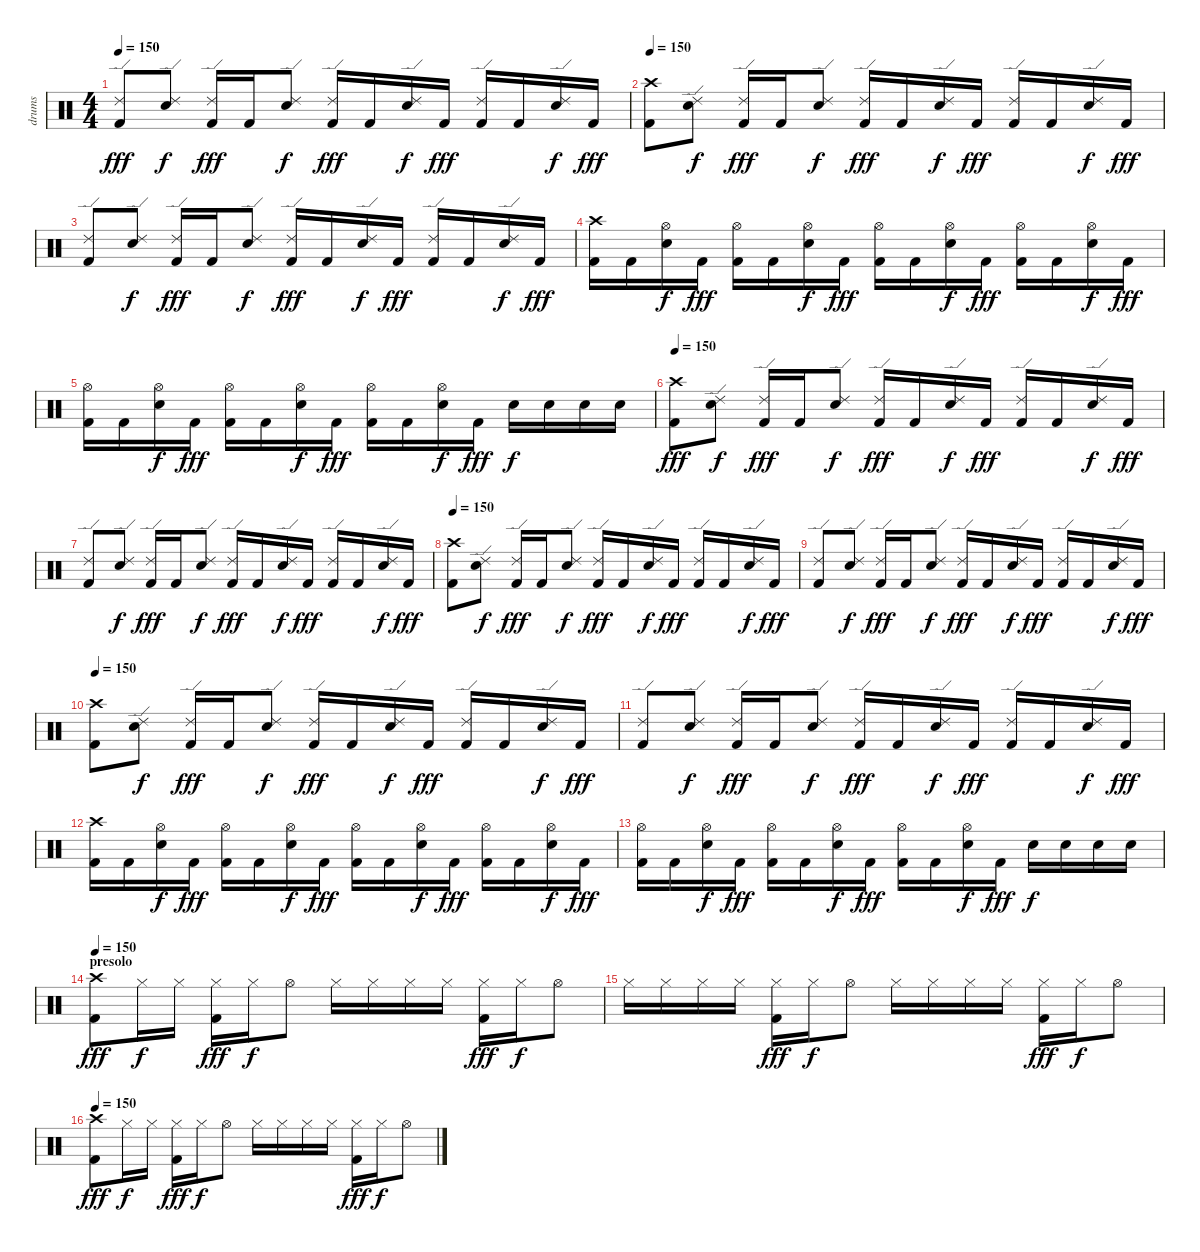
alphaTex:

\track ("drums" "drums") {instrument percussion}
\staff {score}
\articulation defaults
\ts (4 4)
\tempo 150
\clef neutral
\ks c
("Ride (edge) 2" "Kick (hit) 2").8{dy fff} ("Ride (edge) 2" "Snare (hit) 2").8{dy f} ("Ride (edge) 2" "Kick (hit) 2").16{dy fff} "Kick (hit) 2".16 ("Ride (edge) 2" "Snare (hit) 2").8{dy f} ("Ride (edge) 2" "Kick (hit) 2").16{dy fff} "Kick (hit) 2".16 ("Ride (edge) 2" "Snare (hit) 2").16{dy f} "Kick (hit) 2".16{dy fff} ("Ride (edge) 2" "Kick (hit) 2").16 "Kick (hit) 2".16 ("Ride (edge) 2" "Snare (hit) 2").16{dy f} "Kick (hit) 2".16{dy fff} |
\tempo 150
("Crash high (hit)" "Kick (hit) 2").8 ("Ride (edge) 2" "Snare (hit) 2").8{dy f} ("Ride (edge) 2" "Kick (hit) 2").16{dy fff} "Kick (hit) 2".16 ("Ride (edge) 2" "Snare (hit) 2").8{dy f} ("Ride (edge) 2" "Kick (hit) 2").16{dy fff} "Kick (hit) 2".16 ("Ride (edge) 2" "Snare (hit) 2").16{dy f} "Kick (hit) 2".16{dy fff} ("Ride (edge) 2" "Kick (hit) 2").16 "Kick (hit) 2".16 ("Ride (edge) 2" "Snare (hit) 2").16{dy f} "Kick (hit) 2".16{dy fff} |
("Ride (edge) 2" "Kick (hit) 2").8 ("Ride (edge) 2" "Snare (hit) 2").8{dy f} ("Ride (edge) 2" "Kick (hit) 2").16{dy fff} "Kick (hit) 2".16 ("Ride (edge) 2" "Snare (hit) 2").8{dy f} ("Ride (edge) 2" "Kick (hit) 2").16{dy fff} "Kick (hit) 2".16 ("Ride (edge) 2" "Snare (hit) 2").16{dy f} "Kick (hit) 2".16{dy fff} ("Ride (edge) 2" "Kick (hit) 2").16 "Kick (hit) 2".16 ("Ride (edge) 2" "Snare (hit) 2").16{dy f} "Kick (hit) 2".16{dy fff} |
("Crash high (hit)" "Kick (hit) 2").16 "Kick (hit) 2".16 ("Hi-Hat (open)" "Snare (hit) 2").16{dy f} "Kick (hit) 2".16{dy fff} ("Hi-Hat (open)" "Kick (hit) 2").16 "Kick (hit) 2".16 ("Hi-Hat (open)" "Snare (hit) 2").16{dy f} "Kick (hit) 2".16{dy fff} ("Hi-Hat (open)" "Kick (hit) 2").16 "Kick (hit) 2".16 ("Hi-Hat (open)" "Snare (hit) 2").16{dy f} "Kick (hit) 2".16{dy fff} ("Hi-Hat (open)" "Kick (hit) 2").16 "Kick (hit) 2".16 ("Hi-Hat (open)" "Snare (hit) 2").16{dy f} "Kick (hit) 2".16{dy fff} |
("Hi-Hat (open)" "Kick (hit) 2").16 "Kick (hit) 2".16 ("Hi-Hat (open)" "Snare (hit) 2").16{dy f} "Kick (hit) 2".16{dy fff} ("Hi-Hat (open)" "Kick (hit) 2").16 "Kick (hit) 2".16 ("Hi-Hat (open)" "Snare (hit) 2").16{dy f} "Kick (hit) 2".16{dy fff} ("Hi-Hat (open)" "Kick (hit) 2").16 "Kick (hit) 2".16 ("Hi-Hat (open)" "Snare (hit) 2").16{dy f} "Kick (hit) 2".16{dy fff} "Snare (hit) 2".16{dy f} "Snare (hit) 2".16 "Snare (hit) 2".16 "Snare (hit) 2".16 |
\tempo 150
("Crash high (hit)" "Kick (hit) 2").8{dy fff} ("Ride (edge) 2" "Snare (hit) 2").8{dy f} ("Ride (edge) 2" "Kick (hit) 2").16{dy fff} "Kick (hit) 2".16 ("Ride (edge) 2" "Snare (hit) 2").8{dy f} ("Ride (edge) 2" "Kick (hit) 2").16{dy fff} "Kick (hit) 2".16 ("Ride (edge) 2" "Snare (hit) 2").16{dy f} "Kick (hit) 2".16{dy fff} ("Ride (edge) 2" "Kick (hit) 2").16 "Kick (hit) 2".16 ("Ride (edge) 2" "Snare (hit) 2").16{dy f} "Kick (hit) 2".16{dy fff} |
("Ride (edge) 2" "Kick (hit) 2").8 ("Ride (edge) 2" "Snare (hit) 2").8{dy f} ("Ride (edge) 2" "Kick (hit) 2").16{dy fff} "Kick (hit) 2".16 ("Ride (edge) 2" "Snare (hit) 2").8{dy f} ("Ride (edge) 2" "Kick (hit) 2").16{dy fff} "Kick (hit) 2".16 ("Ride (edge) 2" "Snare (hit) 2").16{dy f} "Kick (hit) 2".16{dy fff} ("Ride (edge) 2" "Kick (hit) 2").16 "Kick (hit) 2".16 ("Ride (edge) 2" "Snare (hit) 2").16{dy f} "Kick (hit) 2".16{dy fff} |
\tempo 150
("Crash high (hit)" "Kick (hit) 2").8 ("Ride (edge) 2" "Snare (hit) 2").8{dy f} ("Ride (edge) 2" "Kick (hit) 2").16{dy fff} "Kick (hit) 2".16 ("Ride (edge) 2" "Snare (hit) 2").8{dy f} ("Ride (edge) 2" "Kick (hit) 2").16{dy fff} "Kick (hit) 2".16 ("Ride (edge) 2" "Snare (hit) 2").16{dy f} "Kick (hit) 2".16{dy fff} ("Ride (edge) 2" "Kick (hit) 2").16 "Kick (hit) 2".16 ("Ride (edge) 2" "Snare (hit) 2").16{dy f} "Kick (hit) 2".16{dy fff} |
("Ride (edge) 2" "Kick (hit) 2").8 ("Ride (edge) 2" "Snare (hit) 2").8{dy f} ("Ride (edge) 2" "Kick (hit) 2").16{dy fff} "Kick (hit) 2".16 ("Ride (edge) 2" "Snare (hit) 2").8{dy f} ("Ride (edge) 2" "Kick (hit) 2").16{dy fff} "Kick (hit) 2".16 ("Ride (edge) 2" "Snare (hit) 2").16{dy f} "Kick (hit) 2".16{dy fff} ("Ride (edge) 2" "Kick (hit) 2").16 "Kick (hit) 2".16 ("Ride (edge) 2" "Snare (hit) 2").16{dy f} "Kick (hit) 2".16{dy fff} |
\tempo 150
("Crash high (hit)" "Kick (hit) 2").8 ("Ride (edge) 2" "Snare (hit) 2").8{dy f} ("Ride (edge) 2" "Kick (hit) 2").16{dy fff} "Kick (hit) 2".16 ("Ride (edge) 2" "Snare (hit) 2").8{dy f} ("Ride (edge) 2" "Kick (hit) 2").16{dy fff} "Kick (hit) 2".16 ("Ride (edge) 2" "Snare (hit) 2").16{dy f} "Kick (hit) 2".16{dy fff} ("Ride (edge) 2" "Kick (hit) 2").16 "Kick (hit) 2".16 ("Ride (edge) 2" "Snare (hit) 2").16{dy f} "Kick (hit) 2".16{dy fff} |
("Ride (edge) 2" "Kick (hit) 2").8 ("Ride (edge) 2" "Snare (hit) 2").8{dy f} ("Ride (edge) 2" "Kick (hit) 2").16{dy fff} "Kick (hit) 2".16 ("Ride (edge) 2" "Snare (hit) 2").8{dy f} ("Ride (edge) 2" "Kick (hit) 2").16{dy fff} "Kick (hit) 2".16 ("Ride (edge) 2" "Snare (hit) 2").16{dy f} "Kick (hit) 2".16{dy fff} ("Ride (edge) 2" "Kick (hit) 2").16 "Kick (hit) 2".16 ("Ride (edge) 2" "Snare (hit) 2").16{dy f} "Kick (hit) 2".16{dy fff} |
("Crash high (hit)" "Kick (hit) 2").16 "Kick (hit) 2".16 ("Hi-Hat (open)" "Snare (hit) 2").16{dy f} "Kick (hit) 2".16{dy fff} ("Hi-Hat (open)" "Kick (hit) 2").16 "Kick (hit) 2".16 ("Hi-Hat (open)" "Snare (hit) 2").16{dy f} "Kick (hit) 2".16{dy fff} ("Hi-Hat (open)" "Kick (hit) 2").16 "Kick (hit) 2".16 ("Hi-Hat (open)" "Snare (hit) 2").16{dy f} "Kick (hit) 2".16{dy fff} ("Hi-Hat (open)" "Kick (hit) 2").16 "Kick (hit) 2".16 ("Hi-Hat (open)" "Snare (hit) 2").16{dy f} "Kick (hit) 2".16{dy fff} |
("Hi-Hat (open)" "Kick (hit) 2").16 "Kick (hit) 2".16 ("Hi-Hat (open)" "Snare (hit) 2").16{dy f} "Kick (hit) 2".16{dy fff} ("Hi-Hat (open)" "Kick (hit) 2").16 "Kick (hit) 2".16 ("Hi-Hat (open)" "Snare (hit) 2").16{dy f} "Kick (hit) 2".16{dy fff} ("Hi-Hat (open)" "Kick (hit) 2").16 "Kick (hit) 2".16 ("Hi-Hat (open)" "Snare (hit) 2").16{dy f} "Kick (hit) 2".16{dy fff} "Snare (hit) 2".16{dy f} "Snare (hit) 2".16 "Snare (hit) 2".16 "Snare (hit) 2".16 |
\section ("" "presolo")
\tempo 150
("Crash high (hit)" "Kick (hit) 2").8{dy fff} "Hi-Hat (closed)".16{dy f} "Hi-Hat (closed)".16 ("Hi-Hat (closed)" "Kick (hit) 2").16{dy fff} "Hi-Hat (closed)".16{dy f} "Hi-Hat (open)".8 "Hi-Hat (closed)".16 "Hi-Hat (closed)".16 "Hi-Hat (closed)".16 "Hi-Hat (closed)".16 ("Hi-Hat (closed)" "Kick (hit) 2").16{dy fff} "Hi-Hat (closed)".16{dy f} "Hi-Hat (open)".8 |
"Hi-Hat (closed)".16 "Hi-Hat (closed)".16 "Hi-Hat (closed)".16 "Hi-Hat (closed)".16 ("Hi-Hat (closed)" "Kick (hit) 2").16{dy fff} "Hi-Hat (closed)".16{dy f} "Hi-Hat (open)".8 "Hi-Hat (closed)".16 "Hi-Hat (closed)".16 "Hi-Hat (closed)".16 "Hi-Hat (closed)".16 ("Hi-Hat (closed)" "Kick (hit) 2").16{dy fff} "Hi-Hat (closed)".16{dy f} "Hi-Hat (open)".8 |
\tempo 150
("Crash high (hit)" "Kick (hit) 2").8{dy fff} "Hi-Hat (closed)".16{dy f} "Hi-Hat (closed)".16 ("Hi-Hat (closed)" "Kick (hit) 2").16{dy fff} "Hi-Hat (closed)".16{dy f} "Hi-Hat (open)".8 "Hi-Hat (closed)".16 "Hi-Hat (closed)".16 "Hi-Hat (closed)".16 "Hi-Hat (closed)".16 ("Hi-Hat (closed)" "Kick (hit) 2").16{dy fff} "Hi-Hat (closed)".16{dy f} "Hi-Hat (open)".8
